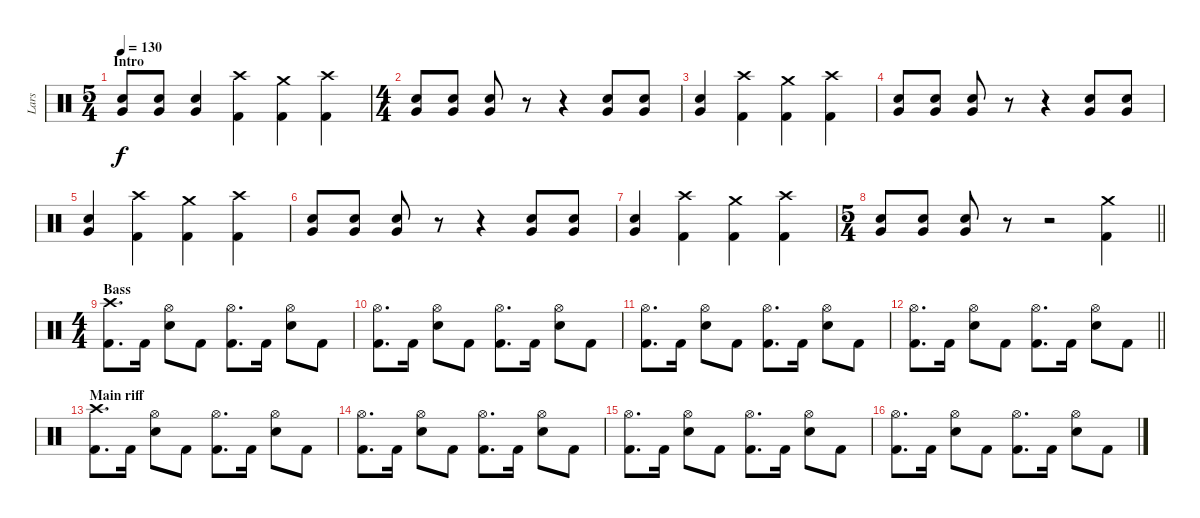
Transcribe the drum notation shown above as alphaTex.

\track ("Lars" "Lars") {instrument percussion}
\staff {score}
\articulation defaults
\ts (5 4)
\section ("" "Intro")
\tempo 130
\clef neutral
\ks c
("Electric Snare (hit)" "Very Low Tom (hit)").8{bu 120 dy f} ("Electric Snare (hit)" "Very Low Tom (hit)").8{bu 120} ("Electric Snare (hit)" "Very Low Tom (hit)").4 ("Kick (hit) 2" "Crash high (hit)").4 ("Kick (hit) 2" "Crash medium (hit)").4 ("Kick (hit) 2" "Crash high (hit)").4 |
\ts (4 4)
("Electric Snare (hit)" "Very Low Tom (hit)").8{bu 120} ("Electric Snare (hit)" "Very Low Tom (hit)").8{bu 120} ("Electric Snare (hit)" "Very Low Tom (hit)").8{bu 120} r.8 r.4 ("Electric Snare (hit)" "Very Low Tom (hit)").8{bu 120} ("Electric Snare (hit)" "Very Low Tom (hit)").8{bu 120} |
("Electric Snare (hit)" "Very Low Tom (hit)").4 ("Kick (hit) 2" "Crash high (hit)").4 ("Kick (hit) 2" "Crash medium (hit)").4 ("Kick (hit) 2" "Crash high (hit)").4 |
("Electric Snare (hit)" "Very Low Tom (hit)").8{bu 120} ("Electric Snare (hit)" "Very Low Tom (hit)").8{bu 120} ("Electric Snare (hit)" "Very Low Tom (hit)").8{bu 120} r.8 r.4 ("Electric Snare (hit)" "Very Low Tom (hit)").8{bu 120} ("Electric Snare (hit)" "Very Low Tom (hit)").8{bu 120} |
("Electric Snare (hit)" "Very Low Tom (hit)").4 ("Kick (hit) 2" "Crash high (hit)").4 ("Kick (hit) 2" "Crash medium (hit)").4 ("Kick (hit) 2" "Crash high (hit)").4 |
("Electric Snare (hit)" "Very Low Tom (hit)").8{bu 120} ("Electric Snare (hit)" "Very Low Tom (hit)").8{bu 120} ("Electric Snare (hit)" "Very Low Tom (hit)").8{bu 120} r.8 r.4 ("Electric Snare (hit)" "Very Low Tom (hit)").8{bu 120} ("Electric Snare (hit)" "Very Low Tom (hit)").8{bu 120} |
("Electric Snare (hit)" "Very Low Tom (hit)").4 ("Kick (hit) 2" "Crash high (hit)").4 ("Kick (hit) 2" "Crash medium (hit)").4 ("Kick (hit) 2" "Crash high (hit)").4 |
\ts (5 4)
\barLineRight lightlight
("Electric Snare (hit)" "Very Low Tom (hit)").8{bu 120} ("Electric Snare (hit)" "Very Low Tom (hit)").8{bu 120} ("Electric Snare (hit)" "Very Low Tom (hit)").8{bu 120} r.8 r.2 ("Kick (hit) 2" "Crash medium (hit)").4 |
\ts (4 4)
\section ("" "Bass")
("Kick (hit) 2" "Crash high (hit)").8{d} "Kick (hit) 2".16 ("Electric Snare (hit)" "Hi-Hat (open)").8 "Kick (hit) 2".8 ("Kick (hit) 2" "Hi-Hat (open)").8{d} "Kick (hit) 2".16 ("Electric Snare (hit)" "Hi-Hat (open)").8 "Kick (hit) 2".8 |
("Kick (hit) 2" "Hi-Hat (open)").8{d} "Kick (hit) 2".16 ("Electric Snare (hit)" "Hi-Hat (open)").8 "Kick (hit) 2".8 ("Kick (hit) 2" "Hi-Hat (open)").8{d} "Kick (hit) 2".16 ("Electric Snare (hit)" "Hi-Hat (open)").8 "Kick (hit) 2".8 |
("Kick (hit) 2" "Hi-Hat (open)").8{d} "Kick (hit) 2".16 ("Electric Snare (hit)" "Hi-Hat (open)").8 "Kick (hit) 2".8 ("Kick (hit) 2" "Hi-Hat (open)").8{d} "Kick (hit) 2".16 ("Electric Snare (hit)" "Hi-Hat (open)").8 "Kick (hit) 2".8 |
\barLineRight lightlight
("Kick (hit) 2" "Hi-Hat (open)").8{d} "Kick (hit) 2".16 ("Electric Snare (hit)" "Hi-Hat (open)").8 "Kick (hit) 2".8 ("Kick (hit) 2" "Hi-Hat (open)").8{d} "Kick (hit) 2".16 ("Electric Snare (hit)" "Hi-Hat (open)").8 "Kick (hit) 2".8 |
\section ("" "Main riff")
("Kick (hit) 2" "Crash high (hit)").8{d} "Kick (hit) 2".16 ("Electric Snare (hit)" "Hi-Hat (open)").8 "Kick (hit) 2".8 ("Kick (hit) 2" "Hi-Hat (open)").8{d} "Kick (hit) 2".16 ("Electric Snare (hit)" "Hi-Hat (open)").8 "Kick (hit) 2".8 |
("Kick (hit) 2" "Hi-Hat (open)").8{d} "Kick (hit) 2".16 ("Electric Snare (hit)" "Hi-Hat (open)").8 "Kick (hit) 2".8 ("Kick (hit) 2" "Hi-Hat (open)").8{d} "Kick (hit) 2".16 ("Electric Snare (hit)" "Hi-Hat (open)").8 "Kick (hit) 2".8 |
("Kick (hit) 2" "Hi-Hat (open)").8{d} "Kick (hit) 2".16 ("Electric Snare (hit)" "Hi-Hat (open)").8 "Kick (hit) 2".8 ("Kick (hit) 2" "Hi-Hat (open)").8{d} "Kick (hit) 2".16 ("Electric Snare (hit)" "Hi-Hat (open)").8 "Kick (hit) 2".8 |
("Kick (hit) 2" "Hi-Hat (open)").8{d} "Kick (hit) 2".16 ("Electric Snare (hit)" "Hi-Hat (open)").8 "Kick (hit) 2".8 ("Kick (hit) 2" "Hi-Hat (open)").8{d} "Kick (hit) 2".16 ("Electric Snare (hit)" "Hi-Hat (open)").8 "Kick (hit) 2".8
